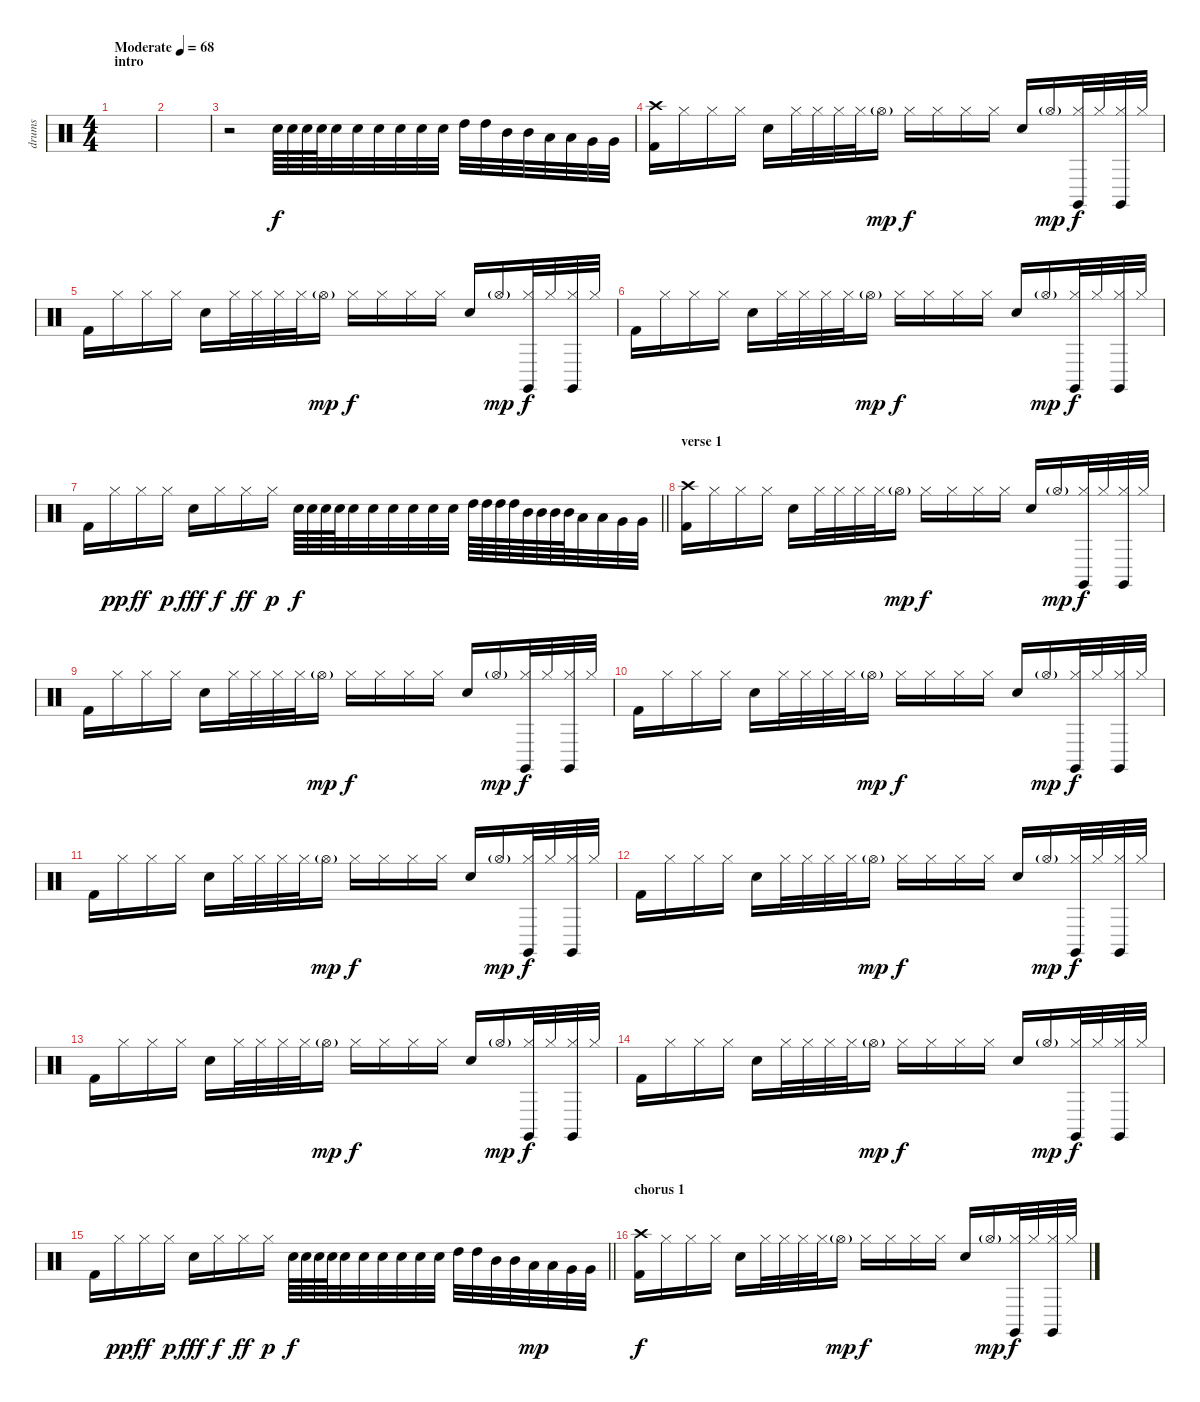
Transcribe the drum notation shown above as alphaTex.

\track ("drums" "drums") {instrument percussion}
\staff {score}
\articulation defaults
\ts (4 4)
\section ("" "intro")
\tempo (68 "Moderate")
\clef neutral
\ks c
|
|
r.2 "Electric Snare (hit)".64 "Electric Snare (hit)".64 "Electric Snare (hit)".64 "Electric Snare (hit)".64 "Electric Snare (hit)".32 "Electric Snare (hit)".32 "Electric Snare (hit)".32 "Electric Snare (hit)".32 "Electric Snare (hit)".32 "Electric Snare (hit)".32 "High Tom (hit)".32 "High Tom (hit)".32 "Mid Tom (hit)".32 "Mid Tom (hit)".32 "Low Tom (hit)".32 "Low Tom (hit)".32 "Very Low Tom (hit)".32 "Very Low Tom (hit)".32 |
("Kick (hit) 2" "Crash high (hit)").16 "Hi-Hat (closed)".16 "Hi-Hat (closed)".16 "Hi-Hat (closed)".16 "Electric Snare (hit)".16 "Hi-Hat (closed)".32 "Hi-Hat (closed)".32 "Hi-Hat (closed)".32 "Hi-Hat (closed)".32 "Hi-Hat (open)"{g}.16{dy mp} "Hi-Hat (closed)".16{dy f} "Hi-Hat (closed)".16 "Hi-Hat (closed)".16 "Hi-Hat (closed)".16 "Electric Snare (hit)".16 "Hi-Hat (open)"{g}.16{dy mp} ("Hi-Hat (closed)" "Claves (hit)").32{dy f} "Hi-Hat (closed)".32 ("Hi-Hat (closed)" "Claves (hit)").32 "Hi-Hat (closed)".32 |
"Kick (hit) 2".16 "Hi-Hat (closed)".16 "Hi-Hat (closed)".16 "Hi-Hat (closed)".16 "Electric Snare (hit)".16 "Hi-Hat (closed)".32 "Hi-Hat (closed)".32 "Hi-Hat (closed)".32 "Hi-Hat (closed)".32 "Hi-Hat (open)"{g}.16{dy mp} "Hi-Hat (closed)".16{dy f} "Hi-Hat (closed)".16 "Hi-Hat (closed)".16 "Hi-Hat (closed)".16 "Electric Snare (hit)".16 "Hi-Hat (open)"{g}.16{dy mp} ("Hi-Hat (closed)" "Claves (hit)").32{dy f} "Hi-Hat (closed)".32 ("Hi-Hat (closed)" "Claves (hit)").32 "Hi-Hat (closed)".32 |
"Kick (hit) 2".16 "Hi-Hat (closed)".16 "Hi-Hat (closed)".16 "Hi-Hat (closed)".16 "Electric Snare (hit)".16 "Hi-Hat (closed)".32 "Hi-Hat (closed)".32 "Hi-Hat (closed)".32 "Hi-Hat (closed)".32 "Hi-Hat (open)"{g}.16{dy mp} "Hi-Hat (closed)".16{dy f} "Hi-Hat (closed)".16 "Hi-Hat (closed)".16 "Hi-Hat (closed)".16 "Electric Snare (hit)".16 "Hi-Hat (open)"{g}.16{dy mp} ("Hi-Hat (closed)" "Claves (hit)").32{dy f} "Hi-Hat (closed)".32 ("Hi-Hat (closed)" "Claves (hit)").32 "Hi-Hat (closed)".32 |
\barLineRight lightlight "Kick (hit) 2".16 "Hi-Hat (closed)".16{dy pp} "Hi-Hat (closed)".16{dy ff} "Hi-Hat (closed)".16{dy p} "Electric Snare (hit)".16{dy fff} "Hi-Hat (closed)".16{dy f} "Hi-Hat (closed)".16{dy ff} "Hi-Hat (closed)".16{dy p} "Electric Snare (hit)".64{dy f} "Electric Snare (hit)".64 "Electric Snare (hit)".64 "Electric Snare (hit)".64 "Electric Snare (hit)".32 "Electric Snare (hit)".32 "Electric Snare (hit)".32 "Electric Snare (hit)".32 "Electric Snare (hit)".32 "Electric Snare (hit)".32 "High Tom (hit)".64 "High Tom (hit)".64 "High Tom (hit)".64 "High Tom (hit)".64 "Mid Tom (hit)".64 "Mid Tom (hit)".64 "Mid Tom (hit)".64 "Mid Tom (hit)".64 "Low Tom (hit)".32 "Low Tom (hit)".32 "Very Low Tom (hit)".32 "Very Low Tom (hit)".32
|
\section ("" "verse 1")
("Kick (hit) 2" "Crash high (hit)").16 "Hi-Hat (closed)".16 "Hi-Hat (closed)".16 "Hi-Hat (closed)".16 "Electric Snare (hit)".16 "Hi-Hat (closed)".32 "Hi-Hat (closed)".32 "Hi-Hat (closed)".32 "Hi-Hat (closed)".32 "Hi-Hat (open)"{g}.16{dy mp} "Hi-Hat (closed)".16{dy f} "Hi-Hat (closed)".16 "Hi-Hat (closed)".16 "Hi-Hat (closed)".16 "Electric Snare (hit)".16 "Hi-Hat (open)"{g}.16{dy mp} ("Hi-Hat (closed)" "Claves (hit)").32{dy f} "Hi-Hat (closed)".32 ("Hi-Hat (closed)" "Claves (hit)").32 "Hi-Hat (closed)".32 |
"Kick (hit) 2".16 "Hi-Hat (closed)".16 "Hi-Hat (closed)".16 "Hi-Hat (closed)".16 "Electric Snare (hit)".16 "Hi-Hat (closed)".32 "Hi-Hat (closed)".32 "Hi-Hat (closed)".32 "Hi-Hat (closed)".32 "Hi-Hat (open)"{g}.16{dy mp} "Hi-Hat (closed)".16{dy f} "Hi-Hat (closed)".16 "Hi-Hat (closed)".16 "Hi-Hat (closed)".16 "Electric Snare (hit)".16 "Hi-Hat (open)"{g}.16{dy mp} ("Hi-Hat (closed)" "Claves (hit)").32{dy f} "Hi-Hat (closed)".32 ("Hi-Hat (closed)" "Claves (hit)").32 "Hi-Hat (closed)".32 |
"Kick (hit) 2".16 "Hi-Hat (closed)".16 "Hi-Hat (closed)".16 "Hi-Hat (closed)".16 "Electric Snare (hit)".16 "Hi-Hat (closed)".32 "Hi-Hat (closed)".32 "Hi-Hat (closed)".32 "Hi-Hat (closed)".32 "Hi-Hat (open)"{g}.16{dy mp} "Hi-Hat (closed)".16{dy f} "Hi-Hat (closed)".16 "Hi-Hat (closed)".16 "Hi-Hat (closed)".16 "Electric Snare (hit)".16 "Hi-Hat (open)"{g}.16{dy mp} ("Hi-Hat (closed)" "Claves (hit)").32{dy f} "Hi-Hat (closed)".32 ("Hi-Hat (closed)" "Claves (hit)").32 "Hi-Hat (closed)".32 |
"Kick (hit) 2".16 "Hi-Hat (closed)".16 "Hi-Hat (closed)".16 "Hi-Hat (closed)".16 "Electric Snare (hit)".16 "Hi-Hat (closed)".32 "Hi-Hat (closed)".32 "Hi-Hat (closed)".32 "Hi-Hat (closed)".32 "Hi-Hat (open)"{g}.16{dy mp} "Hi-Hat (closed)".16{dy f} "Hi-Hat (closed)".16 "Hi-Hat (closed)".16 "Hi-Hat (closed)".16 "Electric Snare (hit)".16 "Hi-Hat (open)"{g}.16{dy mp} ("Hi-Hat (closed)" "Claves (hit)").32{dy f} "Hi-Hat (closed)".32 ("Hi-Hat (closed)" "Claves (hit)").32 "Hi-Hat (closed)".32 |
"Kick (hit) 2".16 "Hi-Hat (closed)".16 "Hi-Hat (closed)".16 "Hi-Hat (closed)".16 "Electric Snare (hit)".16 "Hi-Hat (closed)".32 "Hi-Hat (closed)".32 "Hi-Hat (closed)".32 "Hi-Hat (closed)".32 "Hi-Hat (open)"{g}.16{dy mp} "Hi-Hat (closed)".16{dy f} "Hi-Hat (closed)".16 "Hi-Hat (closed)".16 "Hi-Hat (closed)".16 "Electric Snare (hit)".16 "Hi-Hat (open)"{g}.16{dy mp} ("Hi-Hat (closed)" "Claves (hit)").32{dy f} "Hi-Hat (closed)".32 ("Hi-Hat (closed)" "Claves (hit)").32 "Hi-Hat (closed)".32 |
"Kick (hit) 2".16 "Hi-Hat (closed)".16 "Hi-Hat (closed)".16 "Hi-Hat (closed)".16 "Electric Snare (hit)".16 "Hi-Hat (closed)".32 "Hi-Hat (closed)".32 "Hi-Hat (closed)".32 "Hi-Hat (closed)".32 "Hi-Hat (open)"{g}.16{dy mp} "Hi-Hat (closed)".16{dy f} "Hi-Hat (closed)".16 "Hi-Hat (closed)".16 "Hi-Hat (closed)".16 "Electric Snare (hit)".16 "Hi-Hat (open)"{g}.16{dy mp} ("Hi-Hat (closed)" "Claves (hit)").32{dy f} "Hi-Hat (closed)".32 ("Hi-Hat (closed)" "Claves (hit)").32 "Hi-Hat (closed)".32 |
"Kick (hit) 2".16 "Hi-Hat (closed)".16 "Hi-Hat (closed)".16 "Hi-Hat (closed)".16 "Electric Snare (hit)".16 "Hi-Hat (closed)".32 "Hi-Hat (closed)".32 "Hi-Hat (closed)".32 "Hi-Hat (closed)".32 "Hi-Hat (open)"{g}.16{dy mp} "Hi-Hat (closed)".16{dy f} "Hi-Hat (closed)".16 "Hi-Hat (closed)".16 "Hi-Hat (closed)".16 "Electric Snare (hit)".16 "Hi-Hat (open)"{g}.16{dy mp} ("Hi-Hat (closed)" "Claves (hit)").32{dy f} "Hi-Hat (closed)".32 ("Hi-Hat (closed)" "Claves (hit)").32 "Hi-Hat (closed)".32 |
\barLineRight lightlight "Kick (hit) 2".16 "Hi-Hat (closed)".16{dy pp} "Hi-Hat (closed)".16{dy ff} "Hi-Hat (closed)".16{dy p} "Electric Snare (hit)".16{dy fff} "Hi-Hat (closed)".16{dy f} "Hi-Hat (closed)".16{dy ff} "Hi-Hat (closed)".16{dy p} "Electric Snare (hit)".64{dy f} "Electric Snare (hit)".64 "Electric Snare (hit)".64 "Electric Snare (hit)".64 "Electric Snare (hit)".32 "Electric Snare (hit)".32 "Electric Snare (hit)".32 "Electric Snare (hit)".32 "Electric Snare (hit)".32 "Electric Snare (hit)".32 "High Tom (hit)".32 "High Tom (hit)".32 "Mid Tom (hit)".32 "Mid Tom (hit)".32 "Low Tom (hit)".32{dy mp} "Low Tom (hit)".32 "Very Low Tom (hit)".32 "Very Low Tom (hit)".32
|
\section ("" "chorus 1")
("Kick (hit) 2" "Crash high (hit)").16{dy f} "Hi-Hat (closed)".16 "Hi-Hat (closed)".16 "Hi-Hat (closed)".16 "Electric Snare (hit)".16 "Hi-Hat (closed)".32 "Hi-Hat (closed)".32 "Hi-Hat (closed)".32 "Hi-Hat (closed)".32 "Hi-Hat (open)"{g}.16{dy mp} "Hi-Hat (closed)".16{dy f} "Hi-Hat (closed)".16 "Hi-Hat (closed)".16 "Hi-Hat (closed)".16 "Electric Snare (hit)".16 "Hi-Hat (open)"{g}.16{dy mp} ("Hi-Hat (closed)" "Claves (hit)").32{dy f} "Hi-Hat (closed)".32 ("Hi-Hat (closed)" "Claves (hit)").32 "Hi-Hat (closed)".32
